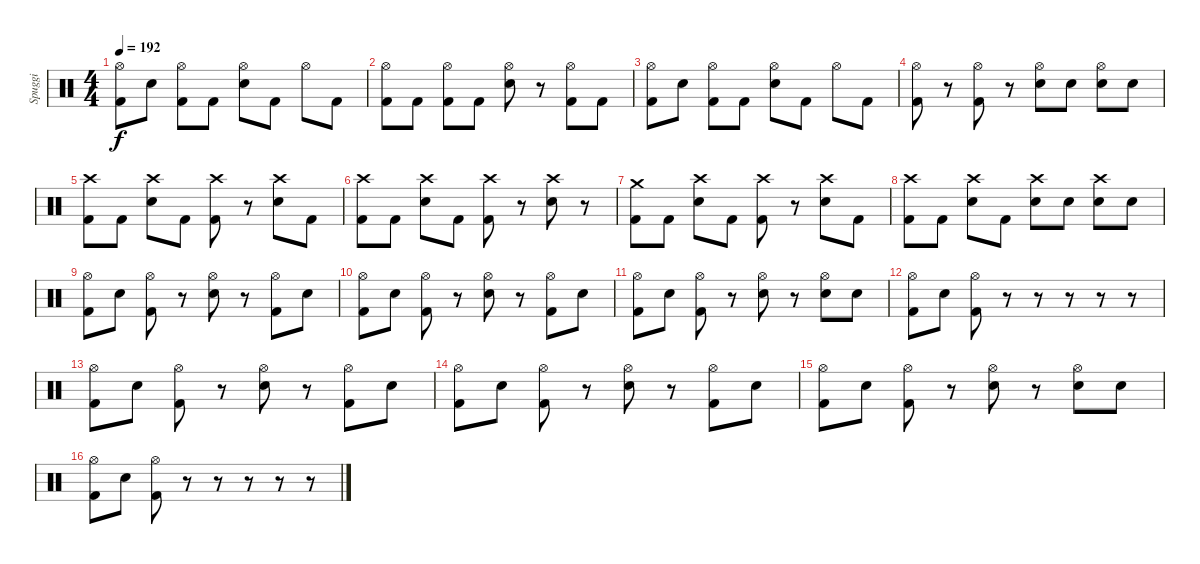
\track ("Spuggi" "Spuggi") {instrument percussion}
\staff {score}
\articulation defaults
\ts (4 4)
\tempo 192
\clef neutral
\ks c
("Hi-Hat (open)" "Kick (hit) 2").8{dy f} "Snare (hit) 2".8 ("Hi-Hat (open)" "Kick (hit) 2").8 "Kick (hit) 2".8 ("Hi-Hat (open)" "Snare (hit) 2").8 "Kick (hit) 2".8 "Hi-Hat (open)".8 "Kick (hit) 2".8 |
("Hi-Hat (open)" "Kick (hit) 2").8 "Kick (hit) 2".8 ("Hi-Hat (open)" "Kick (hit) 2").8 "Kick (hit) 2".8 ("Hi-Hat (open)" "Snare (hit) 2").8 r.8 ("Hi-Hat (open)" "Kick (hit) 2").8 "Kick (hit) 2".8 |
("Hi-Hat (open)" "Kick (hit) 2").8 "Snare (hit) 2".8 ("Hi-Hat (open)" "Kick (hit) 2").8 "Kick (hit) 2".8 ("Hi-Hat (open)" "Snare (hit) 2").8 "Kick (hit) 2".8 "Hi-Hat (open)".8 "Kick (hit) 2".8 |
("Hi-Hat (open)" "Kick (hit) 2").8 r.8 ("Hi-Hat (open)" "Kick (hit) 2").8 r.8 ("Hi-Hat (open)" "Snare (hit) 2").8 "Snare (hit) 2".8 ("Hi-Hat (open)" "Snare (hit) 2").8 "Snare (hit) 2".8 |
("Crash high (hit)" "Kick (hit) 2").8 "Kick (hit) 2".8 ("Crash high (hit)" "Snare (hit) 2").8 "Kick (hit) 2".8 ("Crash high (hit)" "Kick (hit) 2").8 r.8 ("Crash high (hit)" "Snare (hit) 2").8 "Kick (hit) 2".8 |
("Crash high (hit)" "Kick (hit) 2").8 "Kick (hit) 2".8 ("Crash high (hit)" "Snare (hit) 2").8 "Kick (hit) 2".8 ("Crash high (hit)" "Kick (hit) 2").8 r.8 ("Crash high (hit)" "Snare (hit) 2").8 r.8 |
("Crash medium (hit)" "Kick (hit) 2").8 "Kick (hit) 2".8 ("Crash high (hit)" "Snare (hit) 2").8 "Kick (hit) 2".8 ("Crash high (hit)" "Kick (hit) 2").8 r.8 ("Crash high (hit)" "Snare (hit) 2").8 "Kick (hit) 2".8 |
("Crash high (hit)" "Kick (hit) 2").8 "Kick (hit) 2".8 ("Crash high (hit)" "Snare (hit) 2").8 "Kick (hit) 2".8 ("Crash high (hit)" "Snare (hit) 2").8 "Snare (hit) 2".8 ("Crash high (hit)" "Snare (hit) 2").8 "Snare (hit) 2".8 |
("Hi-Hat (open)" "Kick (hit) 2").8 "Snare (hit) 2".8 ("Hi-Hat (open)" "Kick (hit) 2").8 r.8 ("Hi-Hat (open)" "Snare (hit) 2").8 r.8 ("Hi-Hat (open)" "Kick (hit) 2").8 "Snare (hit) 2".8 |
("Hi-Hat (open)" "Kick (hit) 2").8 "Snare (hit) 2".8 ("Hi-Hat (open)" "Kick (hit) 2").8 r.8 ("Hi-Hat (open)" "Snare (hit) 2").8 r.8 ("Hi-Hat (open)" "Kick (hit) 2").8 "Snare (hit) 2".8 |
("Hi-Hat (open)" "Kick (hit) 2").8 "Snare (hit) 2".8 ("Hi-Hat (open)" "Kick (hit) 2").8 r.8 ("Hi-Hat (open)" "Snare (hit) 2").8 r.8 ("Hi-Hat (open)" "Snare (hit) 2").8 "Snare (hit) 2".8 |
("Hi-Hat (open)" "Kick (hit) 2").8 "Snare (hit) 2".8 ("Hi-Hat (open)" "Kick (hit) 2").8 r.8 r.8 r.8 r.8 r.8 |
("Hi-Hat (open)" "Kick (hit) 2").8 "Snare (hit) 2".8 ("Hi-Hat (open)" "Kick (hit) 2").8 r.8 ("Hi-Hat (open)" "Snare (hit) 2").8 r.8 ("Hi-Hat (open)" "Kick (hit) 2").8 "Snare (hit) 2".8 |
("Hi-Hat (open)" "Kick (hit) 2").8 "Snare (hit) 2".8 ("Hi-Hat (open)" "Kick (hit) 2").8 r.8 ("Hi-Hat (open)" "Snare (hit) 2").8 r.8 ("Hi-Hat (open)" "Kick (hit) 2").8 "Snare (hit) 2".8 |
("Hi-Hat (open)" "Kick (hit) 2").8 "Snare (hit) 2".8 ("Hi-Hat (open)" "Kick (hit) 2").8 r.8 ("Hi-Hat (open)" "Snare (hit) 2").8 r.8 ("Hi-Hat (open)" "Snare (hit) 2").8 "Snare (hit) 2".8 |
("Hi-Hat (open)" "Kick (hit) 2").8 "Snare (hit) 2".8 ("Hi-Hat (open)" "Kick (hit) 2").8 r.8 r.8 r.8 r.8 r.8
